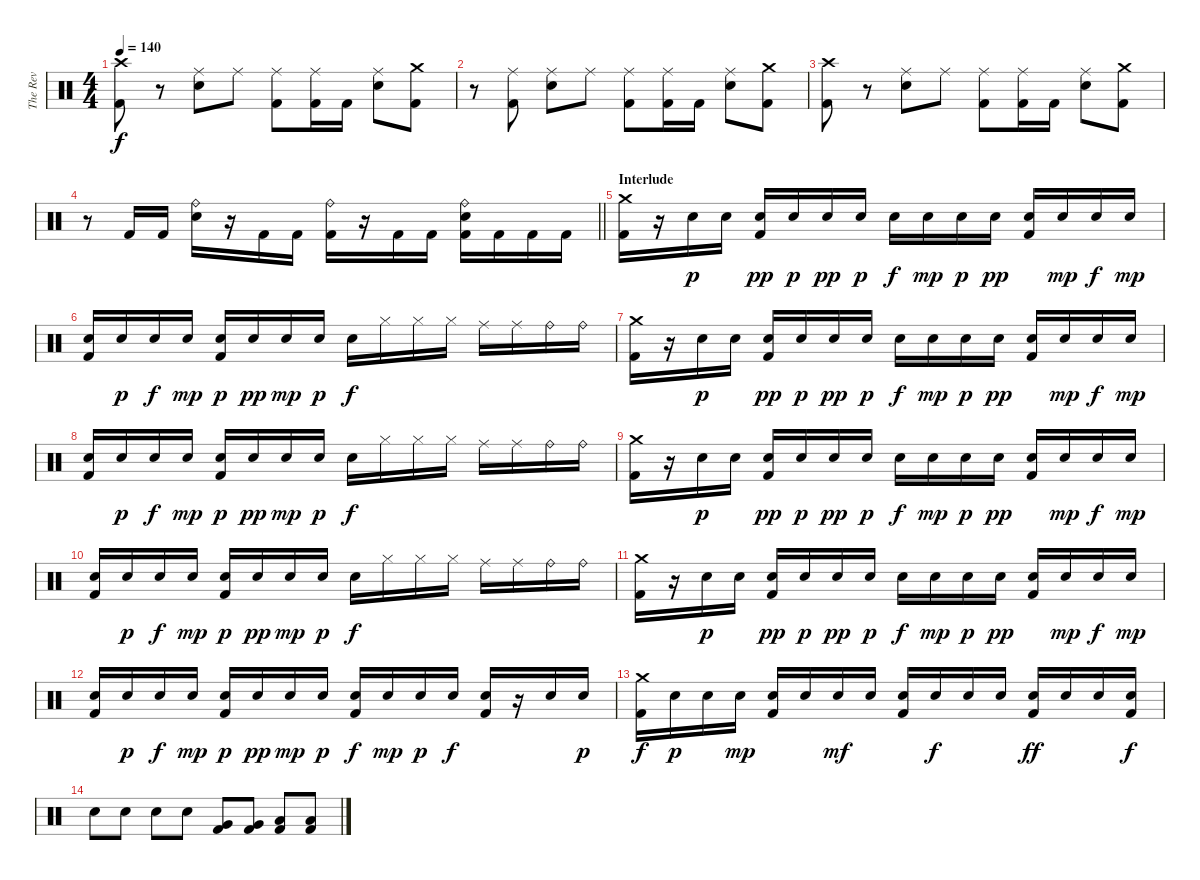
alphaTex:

\track ("The Rev" "The Rev") {instrument percussion}
\staff {score}
\articulation defaults
\ts (4 4)
\tempo 140
\clef neutral
\ks c
("Crash high (hit)" "Kick (hit) 2").8{dy f} r.8 ("Ride (middle)" "Electric Snare (hit)").8 "Ride (middle)".8 ("Ride (middle)" "Kick (hit) 2").8 ("Ride (middle)" "Kick (hit) 2").16 "Kick (hit) 2".16 ("Ride (middle)" "Electric Snare (hit)").8 ("Crash medium (hit)" "Kick (hit) 2").8 |
r.8 ("Ride (middle)" "Kick (hit) 2").8 ("Ride (middle)" "Electric Snare (hit)").8 "Ride (middle)".8 ("Ride (middle)" "Kick (hit) 2").8 ("Ride (middle)" "Kick (hit) 2").16 "Kick (hit) 2".16 ("Ride (middle)" "Electric Snare (hit)").8 ("Crash medium (hit)" "Kick (hit) 2").8 |
("Crash high (hit)" "Kick (hit) 2").8 r.8 ("Ride (middle)" "Electric Snare (hit)").8 "Ride (middle)".8 ("Ride (middle)" "Kick (hit) 2").8 ("Ride (middle)" "Kick (hit) 2").16 "Kick (hit) 2".16 ("Ride (middle)" "Electric Snare (hit)").8 ("Crash medium (hit)" "Kick (hit) 2").8 |
\barLineRight lightlight
r.8 "Kick (hit) 2".16 "Kick (hit) 2".16 ("Ride (bell)" "Electric Snare (hit)").16 r.16 "Kick (hit) 2".16 "Kick (hit) 2".16 ("Ride (bell)" "Kick (hit) 2").16 r.16 "Kick (hit) 2".16 "Kick (hit) 2".16 ("Ride (bell)" "Electric Snare (hit)" "Kick (hit) 2").16 "Kick (hit) 2".16 "Kick (hit) 2".16 "Kick (hit) 2".16 |
\section ("" "Interlude")
("Crash medium (hit)" "Kick (hit) 2").16 r.16 "Electric Snare (hit)".16{dy p} "Electric Snare (hit)".16 ("Electric Snare (hit)" "Kick (hit) 2").16{dy pp} "Electric Snare (hit)".16{dy p} "Electric Snare (hit)".16{dy pp} "Electric Snare (hit)".16{dy p} "Electric Snare (hit)".16{dy f} "Electric Snare (hit)".16{dy mp} "Electric Snare (hit)".16{dy p} "Electric Snare (hit)".16{dy pp} ("Electric Snare (hit)" "Kick (hit) 2").16 "Electric Snare (hit)".16{dy mp} "Electric Snare (hit)".16{dy f} "Electric Snare (hit)".16{dy mp} |
("Electric Snare (hit)" "Kick (hit) 2").16 "Electric Snare (hit)".16{dy p} "Electric Snare (hit)".16{dy f} "Electric Snare (hit)".16{dy mp} ("Electric Snare (hit)" "Kick (hit) 2").16{dy p} "Electric Snare (hit)".16{dy pp} "Electric Snare (hit)".16{dy mp} "Electric Snare (hit)".16{dy p} "Electric Snare (hit)".16{dy f} "Hi-Hat (closed)".16 "Hi-Hat (closed)".16 "Hi-Hat (closed)".16 "Ride (middle)".16 "Ride (middle)".16 "Ride (bell)".16 "Ride (bell)".16 |
("Crash medium (hit)" "Kick (hit) 2").16 r.16 "Electric Snare (hit)".16{dy p} "Electric Snare (hit)".16 ("Electric Snare (hit)" "Kick (hit) 2").16{dy pp} "Electric Snare (hit)".16{dy p} "Electric Snare (hit)".16{dy pp} "Electric Snare (hit)".16{dy p} "Electric Snare (hit)".16{dy f} "Electric Snare (hit)".16{dy mp} "Electric Snare (hit)".16{dy p} "Electric Snare (hit)".16{dy pp} ("Electric Snare (hit)" "Kick (hit) 2").16 "Electric Snare (hit)".16{dy mp} "Electric Snare (hit)".16{dy f} "Electric Snare (hit)".16{dy mp} |
("Electric Snare (hit)" "Kick (hit) 2").16 "Electric Snare (hit)".16{dy p} "Electric Snare (hit)".16{dy f} "Electric Snare (hit)".16{dy mp} ("Electric Snare (hit)" "Kick (hit) 2").16{dy p} "Electric Snare (hit)".16{dy pp} "Electric Snare (hit)".16{dy mp} "Electric Snare (hit)".16{dy p} "Electric Snare (hit)".16{dy f} "Hi-Hat (closed)".16 "Hi-Hat (closed)".16 "Hi-Hat (closed)".16 "Ride (middle)".16 "Ride (middle)".16 "Ride (bell)".16 "Ride (bell)".16 |
("Crash medium (hit)" "Kick (hit) 2").16 r.16 "Electric Snare (hit)".16{dy p} "Electric Snare (hit)".16 ("Electric Snare (hit)" "Kick (hit) 2").16{dy pp} "Electric Snare (hit)".16{dy p} "Electric Snare (hit)".16{dy pp} "Electric Snare (hit)".16{dy p} "Electric Snare (hit)".16{dy f} "Electric Snare (hit)".16{dy mp} "Electric Snare (hit)".16{dy p} "Electric Snare (hit)".16{dy pp} ("Electric Snare (hit)" "Kick (hit) 2").16 "Electric Snare (hit)".16{dy mp} "Electric Snare (hit)".16{dy f} "Electric Snare (hit)".16{dy mp} |
("Electric Snare (hit)" "Kick (hit) 2").16 "Electric Snare (hit)".16{dy p} "Electric Snare (hit)".16{dy f} "Electric Snare (hit)".16{dy mp} ("Electric Snare (hit)" "Kick (hit) 2").16{dy p} "Electric Snare (hit)".16{dy pp} "Electric Snare (hit)".16{dy mp} "Electric Snare (hit)".16{dy p} "Electric Snare (hit)".16{dy f} "Hi-Hat (closed)".16 "Hi-Hat (closed)".16 "Hi-Hat (closed)".16 "Ride (middle)".16 "Ride (middle)".16 "Ride (bell)".16 "Ride (bell)".16 |
("Crash medium (hit)" "Kick (hit) 2").16 r.16 "Electric Snare (hit)".16{dy p} "Electric Snare (hit)".16 ("Electric Snare (hit)" "Kick (hit) 2").16{dy pp} "Electric Snare (hit)".16{dy p} "Electric Snare (hit)".16{dy pp} "Electric Snare (hit)".16{dy p} "Electric Snare (hit)".16{dy f} "Electric Snare (hit)".16{dy mp} "Electric Snare (hit)".16{dy p} "Electric Snare (hit)".16{dy pp} ("Electric Snare (hit)" "Kick (hit) 2").16 "Electric Snare (hit)".16{dy mp} "Electric Snare (hit)".16{dy f} "Electric Snare (hit)".16{dy mp} |
("Electric Snare (hit)" "Kick (hit) 2").16 "Electric Snare (hit)".16{dy p} "Electric Snare (hit)".16{dy f} "Electric Snare (hit)".16{dy mp} ("Electric Snare (hit)" "Kick (hit) 2").16{dy p} "Electric Snare (hit)".16{dy pp} "Electric Snare (hit)".16{dy mp} "Electric Snare (hit)".16{dy p} ("Electric Snare (hit)" "Kick (hit) 2").16{dy f} "Electric Snare (hit)".16{dy mp} "Electric Snare (hit)".16{dy p} "Electric Snare (hit)".16{dy f} ("Electric Snare (hit)" "Kick (hit) 2").16 r.16 "Electric Snare (hit)".16 "Electric Snare (hit)".16{dy p} |
("Crash medium (hit)" "Kick (hit) 2").16{dy f} "Electric Snare (hit)".16{dy p} "Electric Snare (hit)".16 "Electric Snare (hit)".16{dy mp} ("Electric Snare (hit)" "Kick (hit) 2").16 "Electric Snare (hit)".16 "Electric Snare (hit)".16{dy mf} "Electric Snare (hit)".16 ("Electric Snare (hit)" "Kick (hit) 2").16 "Electric Snare (hit)".16{dy f} "Electric Snare (hit)".16 "Electric Snare (hit)".16 ("Electric Snare (hit)" "Kick (hit) 2").16{dy ff} "Electric Snare (hit)".16 "Electric Snare (hit)".16 ("Electric Snare (hit)" "Kick (hit) 2").16{dy f} |
"Electric Snare (hit)".8 "Electric Snare (hit)".8 "Electric Snare (hit)".8 "Electric Snare (hit)".8 ("Very Low Tom (hit)" "Kick (hit) 2").8 ("Very Low Tom (hit)" "Kick (hit) 2").8 ("Low Floor Tom (hit)" "Kick (hit) 2").8 ("Low Floor Tom (hit)" "Kick (hit) 2").8
